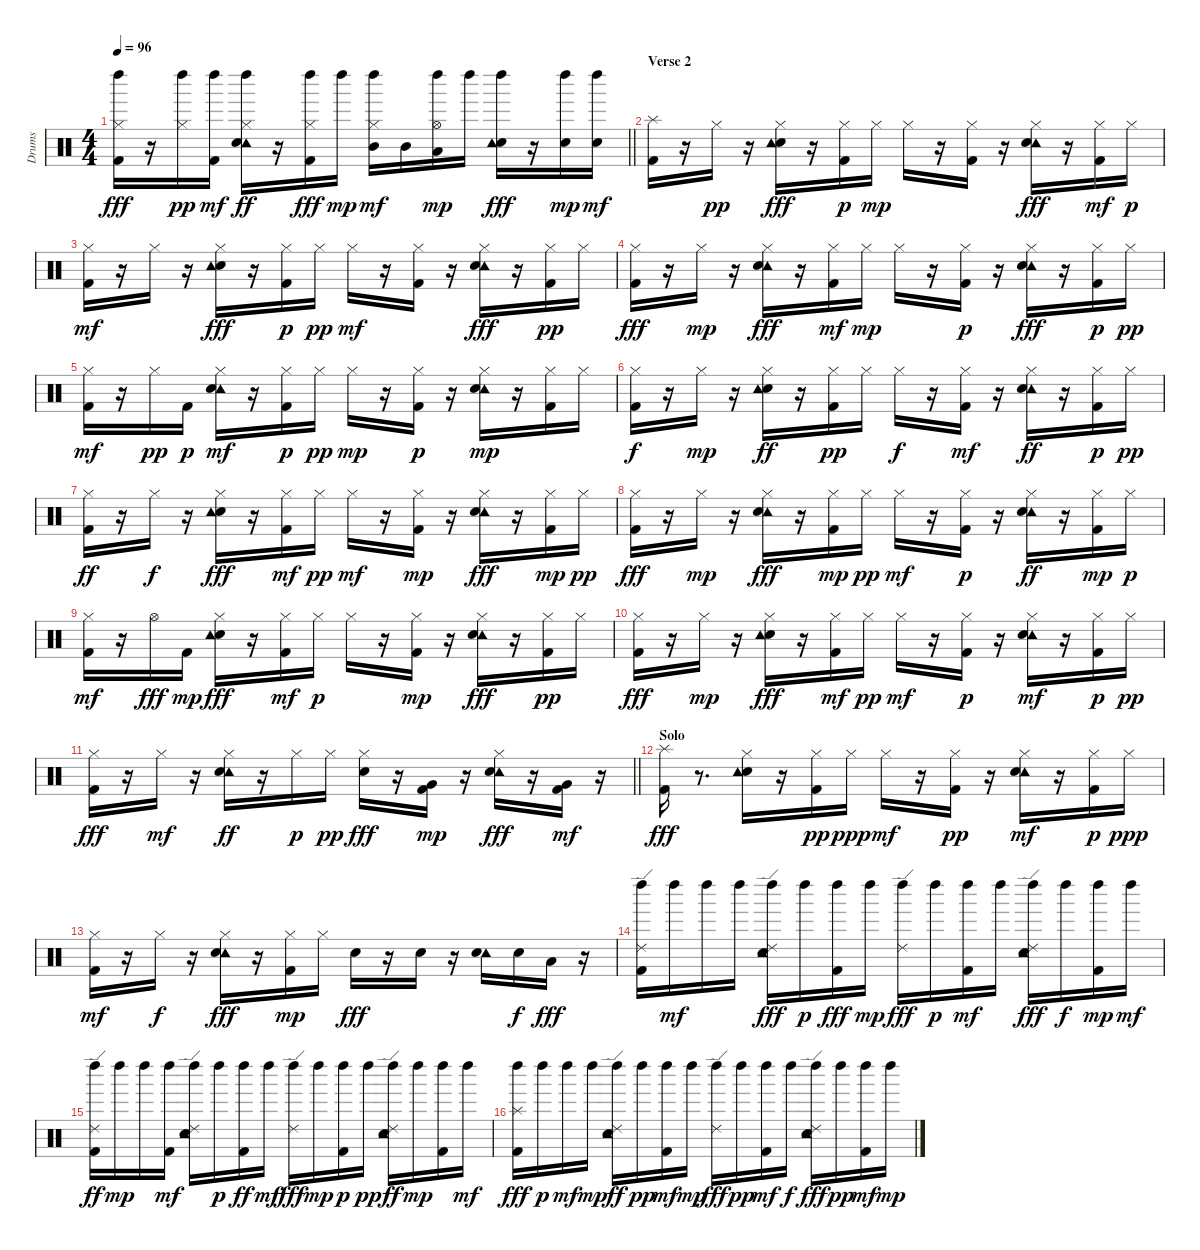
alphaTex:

\track ("Drums" "Drums") {instrument percussion}
\staff {score}
\articulation defaults
\ts (4 4)
\tempo 96
\clef neutral
\barLineRight lightlight
\ks c
("Left Maraca (hit)" "Hi-Hat (closed)" "Kick (hit) 2").16{dy fff} r.16 ("Left Maraca (hit)" "Hi-Hat (closed)").16{dy pp} ("Kick (hit) 2" "Left Maraca (hit)").16{dy mf} ("Hi-Hat (closed)" "Tambourine (hit)" "Electric Snare (hit)" "Left Maraca (hit)").16{dy ff} r.16 ("Left Maraca (hit)" "Hi-Hat (closed)" "Kick (hit) 2").16{dy fff} "Left Maraca (hit)".16{dy mp} ("Left Maraca (hit)" "Hi-Hat (closed)" "Mid Tom (hit)").16{dy mf} "Mid Tom (hit)".16 ("Left Maraca (hit)" "Low Tom (hit)" "Hi-Hat (open)").16{dy mp} "Left Maraca (hit)".16 ("Left Maraca (hit)" "Electric Snare (hit)" "Tambourine (hit)").16{dy fff} r.16 ("Left Maraca (hit)" "Electric Snare (hit)").16{dy mp} ("Left Maraca (hit)" "Electric Snare (hit)").16{dy mf} |
\section ("" "Verse 2")
("Kick (hit) 2" "Splash (hit)").16 r.16 "Hi-Hat (closed)".16{dy pp} r.16 ("Hi-Hat (closed)" "Electric Snare (hit)" "Tambourine (hit)").16{dy fff} r.16 ("Hi-Hat (closed)" "Kick (hit) 2").16{dy p} "Hi-Hat (closed)".16{dy mp} "Hi-Hat (closed)".16 r.16 ("Kick (hit) 2" "Hi-Hat (closed)").16 r.16 ("Tambourine (hit)" "Electric Snare (hit)" "Hi-Hat (closed)").16{dy fff} r.16 ("Kick (hit) 2" "Hi-Hat (closed)").16{dy mf} "Hi-Hat (closed)".16{dy p} |
("Kick (hit) 2" "Hi-Hat (closed)").16{dy mf} r.16 "Hi-Hat (closed)".16 r.16 ("Electric Snare (hit)" "Tambourine (hit)" "Hi-Hat (closed)").16{dy fff} r.16 ("Kick (hit) 2" "Hi-Hat (closed)").16{dy p} "Hi-Hat (closed)".16{dy pp} "Hi-Hat (closed)".16{dy mf} r.16 ("Hi-Hat (closed)" "Kick (hit) 2").16 r.16 ("Tambourine (hit)" "Electric Snare (hit)" "Hi-Hat (closed)").16{dy fff} r.16 ("Hi-Hat (closed)" "Kick (hit) 2").16{dy pp} "Hi-Hat (closed)".16 |
("Hi-Hat (closed)" "Kick (hit) 2").16{dy fff} r.16 "Hi-Hat (closed)".16{dy mp} r.16 ("Tambourine (hit)" "Electric Snare (hit)" "Hi-Hat (closed)").16{dy fff} r.16 ("Kick (hit) 2" "Hi-Hat (closed)").16{dy mf} "Hi-Hat (closed)".16{dy mp} "Hi-Hat (closed)".16 r.16 ("Kick (hit) 2" "Hi-Hat (closed)").16{dy p} r.16 ("Tambourine (hit)" "Electric Snare (hit)" "Hi-Hat (closed)").16{dy fff} r.16 ("Hi-Hat (closed)" "Kick (hit) 2").16{dy p} "Hi-Hat (closed)".16{dy pp} |
("Hi-Hat (closed)" "Kick (hit) 2").16{dy mf} r.16 "Hi-Hat (closed)".16{dy pp} "Kick (hit) 2".16{dy p} ("Tambourine (hit)" "Electric Snare (hit)" "Hi-Hat (closed)").16{dy mf} r.16 ("Kick (hit) 2" "Hi-Hat (closed)").16{dy p} "Hi-Hat (closed)".16{dy pp} "Hi-Hat (closed)".16{dy mp} r.16 ("Kick (hit) 2" "Hi-Hat (closed)").16{dy p} r.16 ("Tambourine (hit)" "Electric Snare (hit)" "Hi-Hat (closed)").16{dy mp} r.16 ("Kick (hit) 2" "Hi-Hat (closed)").16 "Hi-Hat (closed)".16 |
("Hi-Hat (closed)" "Kick (hit) 2").16{dy f} r.16 "Hi-Hat (closed)".16{dy mp} r.16 ("Electric Snare (hit)" "Tambourine (hit)" "Hi-Hat (closed)").16{dy ff} r.16 ("Kick (hit) 2" "Hi-Hat (closed)").16{dy pp} "Hi-Hat (closed)".16 "Hi-Hat (closed)".16{dy f} r.16 ("Kick (hit) 2" "Hi-Hat (closed)").16{dy mf} r.16 ("Tambourine (hit)" "Electric Snare (hit)" "Hi-Hat (closed)").16{dy ff} r.16 ("Hi-Hat (closed)" "Kick (hit) 2").16{dy p} "Hi-Hat (closed)".16{dy pp} |
("Hi-Hat (closed)" "Kick (hit) 2").16{dy ff} r.16 "Hi-Hat (closed)".16{dy f} r.16 ("Hi-Hat (closed)" "Electric Snare (hit)" "Tambourine (hit)").16{dy fff} r.16 ("Hi-Hat (closed)" "Kick (hit) 2").16{dy mf} "Hi-Hat (closed)".16{dy pp} "Hi-Hat (closed)".16{dy mf} r.16 ("Kick (hit) 2" "Hi-Hat (closed)").16{dy mp} r.16 ("Tambourine (hit)" "Electric Snare (hit)" "Hi-Hat (closed)").16{dy fff} r.16 ("Hi-Hat (closed)" "Kick (hit) 2").16{dy mp} "Hi-Hat (closed)".16{dy pp} |
("Hi-Hat (closed)" "Kick (hit) 2").16{dy fff} r.16 "Hi-Hat (closed)".16{dy mp} r.16 ("Hi-Hat (closed)" "Tambourine (hit)" "Electric Snare (hit)").16{dy fff} r.16 ("Hi-Hat (closed)" "Kick (hit) 2").16{dy mp} "Hi-Hat (closed)".16{dy pp} "Hi-Hat (closed)".16{dy mf} r.16 ("Hi-Hat (closed)" "Kick (hit) 2").16{dy p} r.16 ("Tambourine (hit)" "Electric Snare (hit)" "Hi-Hat (closed)").16{dy ff} r.16 ("Hi-Hat (closed)" "Kick (hit) 2").16{dy mp} "Hi-Hat (closed)".16{dy p} |
("Kick (hit) 2" "Hi-Hat (closed)").16{dy mf} r.16 "Hi-Hat (open)".16{dy fff} "Kick (hit) 2".16{dy mp} ("Electric Snare (hit)" "Tambourine (hit)" "Hi-Hat (closed)").16{dy fff} r.16 ("Hi-Hat (closed)" "Kick (hit) 2").16{dy mf} "Hi-Hat (closed)".16{dy p} "Hi-Hat (closed)".16 r.16 ("Kick (hit) 2" "Hi-Hat (closed)").16{dy mp} r.16 ("Tambourine (hit)" "Electric Snare (hit)" "Hi-Hat (closed)").16{dy fff} r.16 ("Kick (hit) 2" "Hi-Hat (closed)").16{dy pp} "Hi-Hat (closed)".16 |
("Hi-Hat (closed)" "Kick (hit) 2").16{dy fff} r.16 "Hi-Hat (closed)".16{dy mp} r.16 ("Hi-Hat (closed)" "Electric Snare (hit)" "Tambourine (hit)").16{dy fff} r.16 ("Hi-Hat (closed)" "Kick (hit) 2").16{dy mf} "Hi-Hat (closed)".16{dy pp} "Hi-Hat (closed)".16{dy mf} r.16 ("Hi-Hat (closed)" "Kick (hit) 2").16{dy p} r.16 ("Tambourine (hit)" "Electric Snare (hit)" "Hi-Hat (closed)").16{dy mf} r.16 ("Hi-Hat (closed)" "Kick (hit) 2").16{dy p} "Hi-Hat (closed)".16{dy pp} |
\barLineRight lightlight
("Hi-Hat (closed)" "Kick (hit) 2").16{dy fff} r.16 "Hi-Hat (closed)".16{dy mf} r.16 ("Tambourine (hit)" "Electric Snare (hit)" "Hi-Hat (closed)").16{dy ff} r.16 "Hi-Hat (closed)".16{dy p} "Hi-Hat (closed)".16{dy pp} ("Hi-Hat (closed)" "Electric Snare (hit)").16{dy fff} r.16 ("Very Low Tom (hit)" "Kick (hit) 2").16{dy mp} r.16 ("Tambourine (hit)" "Electric Snare (hit)" "Hi-Hat (closed)").16{dy fff} r.16 ("Kick (hit) 2" "Very Low Tom (hit)").16{dy mf} r.16 |
\section ("" "Solo")
("Kick (hit) 2" "Splash (hit)").16{dy fff} r.8{d} ("Hi-Hat (closed)" "Electric Snare (hit)" "Tambourine (hit)").16 r.16 ("Kick (hit) 2" "Hi-Hat (closed)").16{dy pp} "Hi-Hat (closed)".16{dy ppp} "Hi-Hat (closed)".16{dy mf} r.16 ("Hi-Hat (closed)" "Kick (hit) 2").16{dy pp} r.16 ("Tambourine (hit)" "Electric Snare (hit)" "Hi-Hat (closed)").16{dy mf} r.16 ("Hi-Hat (closed)" "Kick (hit) 2").16{dy p} "Hi-Hat (closed)".16{dy ppp} |
("Kick (hit) 2" "Hi-Hat (closed)").16{dy mf} r.16 "Hi-Hat (closed)".16{dy f} r.16 ("Tambourine (hit)" "Electric Snare (hit)" "Hi-Hat (closed)").16{dy fff} r.16 ("Hi-Hat (closed)" "Kick (hit) 2").16{dy mp} "Hi-Hat (closed)".16 "Electric Snare (hit)".16{dy fff} r.16 "Electric Snare (hit)".16 r.16 ("Tambourine (hit)" "Electric Snare (hit)").16 "Electric Snare (hit)".16{dy f} "Low Tom (hit)".16{dy fff} r.16 |
("Kick (hit) 2" "Ride (edge) 2" "Left Maraca (hit)").16 "Left Maraca (hit)".16{dy mf} "Left Maraca (hit)".16 "Left Maraca (hit)".16 ("Left Maraca (hit)" "Tambourine (hit)" "Electric Snare (hit)" "Ride (edge) 2").16{dy fff} "Left Maraca (hit)".16{dy p} ("Left Maraca (hit)" "Kick (hit) 2").16{dy fff} "Left Maraca (hit)".16{dy mp} ("Left Maraca (hit)" "Ride (edge) 2").16{dy fff} "Left Maraca (hit)".16{dy p} ("Left Maraca (hit)" "Kick (hit) 2").16{dy mf} "Left Maraca (hit)".16 ("Tambourine (hit)" "Electric Snare (hit)" "Left Maraca (hit)" "Ride (edge) 2").16{dy fff} "Left Maraca (hit)".16{dy f} ("Kick (hit) 2" "Left Maraca (hit)").16{dy mp} "Left Maraca (hit)".16{dy mf} |
("Kick (hit) 2" "Ride (edge) 2" "Left Maraca (hit)").16{dy ff} "Left Maraca (hit)".16{dy mp} "Left Maraca (hit)".16 ("Kick (hit) 2" "Left Maraca (hit)").16{dy mf} ("Tambourine (hit)" "Electric Snare (hit)" "Ride (edge) 2" "Left Maraca (hit)").16 "Left Maraca (hit)".16{dy p} ("Left Maraca (hit)" "Kick (hit) 2").16{dy ff} "Left Maraca (hit)".16{dy mf} ("Left Maraca (hit)" "Ride (edge) 2").16{dy fff} "Left Maraca (hit)".16{dy mp} ("Left Maraca (hit)" "Kick (hit) 2").16{dy p} "Left Maraca (hit)".16{dy pp} ("Tambourine (hit)" "Electric Snare (hit)" "Ride (edge) 2" "Left Maraca (hit)").16{dy ff} "Left Maraca (hit)".16{dy mp} ("Kick (hit) 2" "Left Maraca (hit)").16 "Left Maraca (hit)".16{dy mf} |
("Splash (hit)" "Left Maraca (hit)" "Kick (hit) 2").16{dy fff} "Left Maraca (hit)".16{dy p} "Left Maraca (hit)".16{dy mf} "Left Maraca (hit)".16{dy mp} ("Left Maraca (hit)" "Electric Snare (hit)" "Tambourine (hit)" "Ride (edge) 2").16{dy ff} "Left Maraca (hit)".16{dy pp} ("Kick (hit) 2" "Left Maraca (hit)").16{dy mf} "Left Maraca (hit)".16{dy mp} ("Ride (edge) 2" "Left Maraca (hit)").16{dy fff} "Left Maraca (hit)".16{dy pp} ("Kick (hit) 2" "Left Maraca (hit)").16{dy mf} "Left Maraca (hit)".16{dy f} ("Ride (edge) 2" "Tambourine (hit)" "Electric Snare (hit)" "Left Maraca (hit)").16{dy fff} "Left Maraca (hit)".16{dy pp} ("Left Maraca (hit)" "Kick (hit) 2").16{dy mf} "Left Maraca (hit)".16{dy mp}
